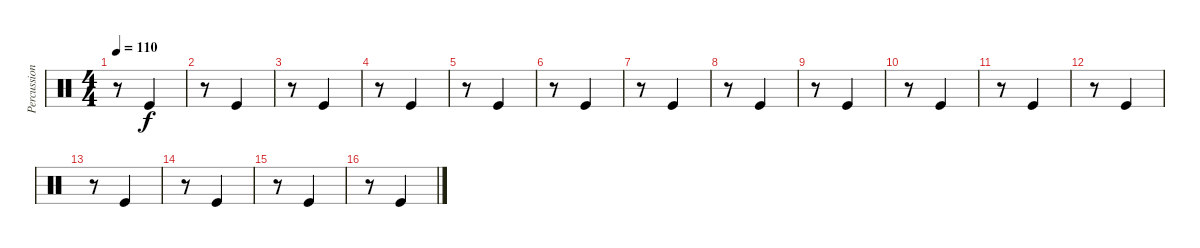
\track ("Percussion" "Percussion") {instrument percussion}
\staff {score}
\articulation defaults
\ts (4 4)
\tempo 110
\clef neutral
\ks c
r.8{dy f} "Kick (hit)".4 |
r.8 "Kick (hit)".4 |
r.8 "Kick (hit)".4 |
r.8 "Kick (hit)".4 |
r.8 "Kick (hit)".4 |
r.8 "Kick (hit)".4 |
r.8 "Kick (hit)".4 |
r.8 "Kick (hit)".4 |
r.8 "Kick (hit)".4 |
r.8 "Kick (hit)".4 |
r.8 "Kick (hit)".4 |
r.8 "Kick (hit)".4 |
r.8 "Kick (hit)".4 |
r.8 "Kick (hit)".4 |
r.8 "Kick (hit)".4 |
r.8 "Kick (hit)".4
